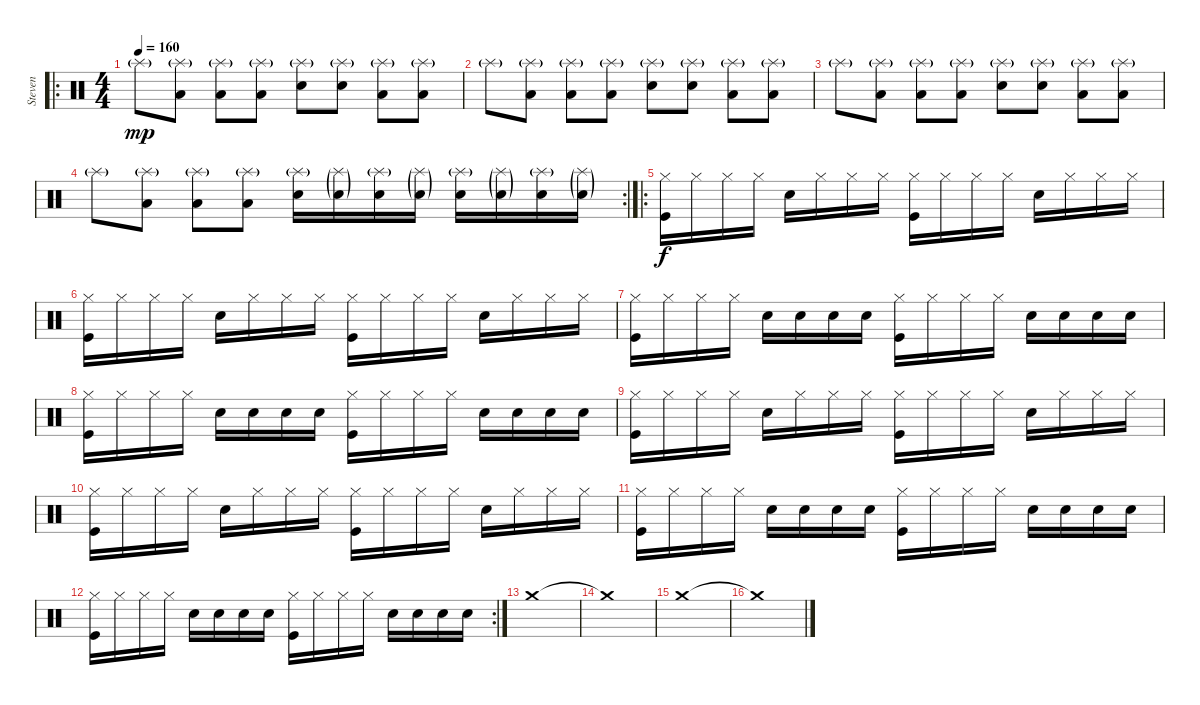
\track ("Steven" "Steven") {instrument percussion}
\staff {score}
\articulation defaults
\ro
\ts (4 4)
\tempo 160
\clef neutral
\ks c "Splash (hit)"{g}.8{dy mp}
("Low Tom (hit)" "Splash (hit)"{g}).8 ("Low Tom (hit)" "Splash (hit)"{g}).8 ("Low Tom (hit)" "Splash (hit)"{g}).8 ("Electric Snare (hit)" "Splash (hit)"{g}).8 ("Electric Snare (hit)" "Splash (hit)"{g}).8 ("Low Tom (hit)" "Splash (hit)"{g}).8 ("Low Tom (hit)" "Splash (hit)"{g}).8 |
"Splash (hit)"{g}.8 ("Low Tom (hit)" "Splash (hit)"{g}).8 ("Low Tom (hit)" "Splash (hit)"{g}).8 ("Low Tom (hit)" "Splash (hit)"{g}).8 ("Electric Snare (hit)" "Splash (hit)"{g}).8 ("Electric Snare (hit)" "Splash (hit)"{g}).8 ("Low Tom (hit)" "Splash (hit)"{g}).8 ("Low Tom (hit)" "Splash (hit)"{g}).8 |
"Splash (hit)"{g}.8 ("Low Tom (hit)" "Splash (hit)"{g}).8 ("Low Tom (hit)" "Splash (hit)"{g}).8 ("Low Tom (hit)" "Splash (hit)"{g}).8 ("Electric Snare (hit)" "Splash (hit)"{g}).8 ("Electric Snare (hit)" "Splash (hit)"{g}).8 ("Low Tom (hit)" "Splash (hit)"{g}).8 ("Low Tom (hit)" "Splash (hit)"{g}).8 |
\rc 2 "Splash (hit)"{g}.8
("Low Tom (hit)" "Splash (hit)"{g}).8 ("Low Tom (hit)" "Splash (hit)"{g}).8 ("Low Tom (hit)" "Splash (hit)"{g}).8 ("Electric Snare (hit)" "Splash (hit)"{g}).16 ("Electric Snare (hit)"{g} "Splash (hit)"{g}).16 ("Electric Snare (hit)" "Splash (hit)"{g}).16 ("Electric Snare (hit)"{g} "Splash (hit)"{g}).16 ("Electric Snare (hit)" "Splash (hit)"{g}).16 ("Electric Snare (hit)"{g} "Splash (hit)"{g}).16 ("Electric Snare (hit)" "Splash (hit)"{g}).16 ("Electric Snare (hit)"{g} "Splash (hit)"{g}).16 |
\ro
("Hi-Hat (closed)" "Kick (hit)").16{dy f} "Hi-Hat (closed)".16 "Hi-Hat (closed)".16 "Hi-Hat (closed)".16 "Electric Snare (hit)".16 "Hi-Hat (closed)".16 "Hi-Hat (closed)".16 "Hi-Hat (closed)".16 ("Hi-Hat (closed)" "Kick (hit)").16 "Hi-Hat (closed)".16 "Hi-Hat (closed)".16 "Hi-Hat (closed)".16 "Electric Snare (hit)".16 "Hi-Hat (closed)".16 "Hi-Hat (closed)".16 "Hi-Hat (closed)".16 |
("Hi-Hat (closed)" "Kick (hit)").16 "Hi-Hat (closed)".16 "Hi-Hat (closed)".16 "Hi-Hat (closed)".16 "Electric Snare (hit)".16 "Hi-Hat (closed)".16 "Hi-Hat (closed)".16 "Hi-Hat (closed)".16 ("Hi-Hat (closed)" "Kick (hit)").16 "Hi-Hat (closed)".16 "Hi-Hat (closed)".16 "Hi-Hat (closed)".16 "Electric Snare (hit)".16 "Hi-Hat (closed)".16 "Hi-Hat (closed)".16 "Hi-Hat (closed)".16 |
("Hi-Hat (closed)" "Kick (hit)").16 "Hi-Hat (closed)".16 "Hi-Hat (closed)".16 "Hi-Hat (closed)".16 "Electric Snare (hit)".16 "Electric Snare (hit)".16 "Electric Snare (hit)".16 "Electric Snare (hit)".16 ("Hi-Hat (closed)" "Kick (hit)").16 "Hi-Hat (closed)".16 "Hi-Hat (closed)".16 "Hi-Hat (closed)".16 "Electric Snare (hit)".16 "Electric Snare (hit)".16 "Electric Snare (hit)".16 "Electric Snare (hit)".16 |
("Hi-Hat (closed)" "Kick (hit)").16 "Hi-Hat (closed)".16 "Hi-Hat (closed)".16 "Hi-Hat (closed)".16 "Electric Snare (hit)".16 "Electric Snare (hit)".16 "Electric Snare (hit)".16 "Electric Snare (hit)".16 ("Hi-Hat (closed)" "Kick (hit)").16 "Hi-Hat (closed)".16 "Hi-Hat (closed)".16 "Hi-Hat (closed)".16 "Electric Snare (hit)".16 "Electric Snare (hit)".16 "Electric Snare (hit)".16 "Electric Snare (hit)".16 |
("Hi-Hat (closed)" "Kick (hit)").16 "Hi-Hat (closed)".16 "Hi-Hat (closed)".16 "Hi-Hat (closed)".16 "Electric Snare (hit)".16 "Hi-Hat (closed)".16 "Hi-Hat (closed)".16 "Hi-Hat (closed)".16 ("Hi-Hat (closed)" "Kick (hit)").16 "Hi-Hat (closed)".16 "Hi-Hat (closed)".16 "Hi-Hat (closed)".16 "Electric Snare (hit)".16 "Hi-Hat (closed)".16 "Hi-Hat (closed)".16 "Hi-Hat (closed)".16 |
("Hi-Hat (closed)" "Kick (hit)").16 "Hi-Hat (closed)".16 "Hi-Hat (closed)".16 "Hi-Hat (closed)".16 "Electric Snare (hit)".16 "Hi-Hat (closed)".16 "Hi-Hat (closed)".16 "Hi-Hat (closed)".16 ("Hi-Hat (closed)" "Kick (hit)").16 "Hi-Hat (closed)".16 "Hi-Hat (closed)".16 "Hi-Hat (closed)".16 "Electric Snare (hit)".16 "Hi-Hat (closed)".16 "Hi-Hat (closed)".16 "Hi-Hat (closed)".16 |
("Hi-Hat (closed)" "Kick (hit)").16 "Hi-Hat (closed)".16 "Hi-Hat (closed)".16 "Hi-Hat (closed)".16 "Electric Snare (hit)".16 "Electric Snare (hit)".16 "Electric Snare (hit)".16 "Electric Snare (hit)".16 ("Hi-Hat (closed)" "Kick (hit)").16 "Hi-Hat (closed)".16 "Hi-Hat (closed)".16 "Hi-Hat (closed)".16 "Electric Snare (hit)".16 "Electric Snare (hit)".16 "Electric Snare (hit)".16 "Electric Snare (hit)".16 |
\rc 2
("Hi-Hat (closed)" "Kick (hit)").16 "Hi-Hat (closed)".16 "Hi-Hat (closed)".16 "Hi-Hat (closed)".16 "Electric Snare (hit)".16 "Electric Snare (hit)".16 "Electric Snare (hit)".16 "Electric Snare (hit)".16 ("Hi-Hat (closed)" "Kick (hit)").16 "Hi-Hat (closed)".16 "Hi-Hat (closed)".16 "Hi-Hat (closed)".16 "Electric Snare (hit)".16 "Electric Snare (hit)".16 "Electric Snare (hit)".16 "Electric Snare (hit)".16 |
"Crash medium (hit)".1 |
"Crash medium (hit)"{t}.1 |
"Crash medium (hit)".1 |
"Crash medium (hit)"{t}.1
